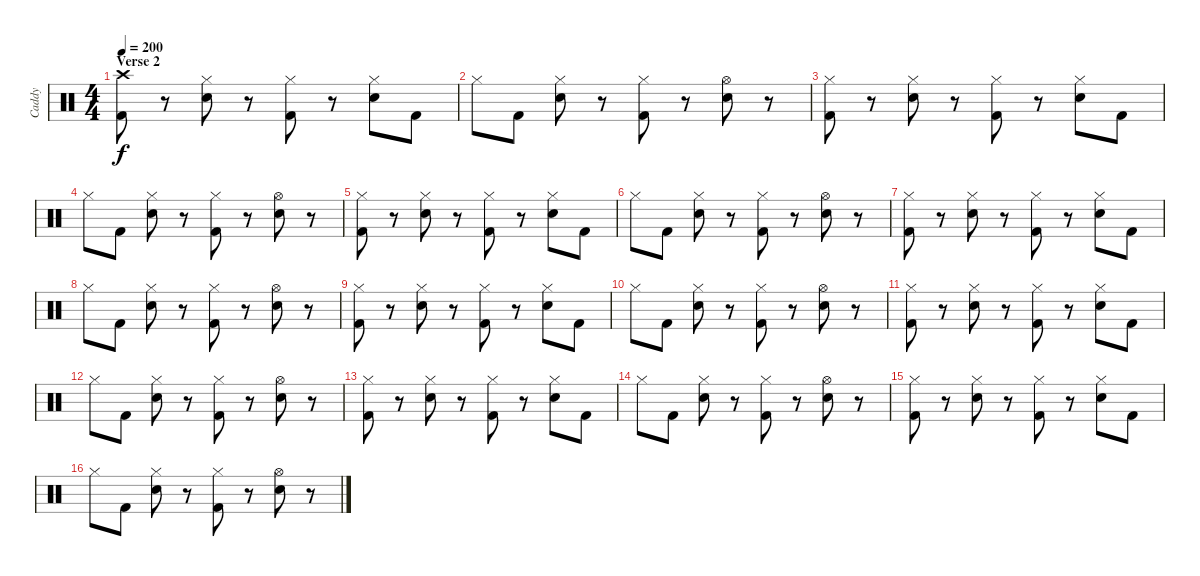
\track ("Caddy" "Caddy") {instrument percussion}
\staff {score}
\articulation defaults
\ts (4 4)
\section ("" "Verse 2")
\tempo 200
\clef neutral
\ks c
("Crash high (hit)" "Kick (hit) 2").8{dy f} r.8 ("Hi-Hat (closed)" "Electric Snare (hit)").8 r.8 ("Hi-Hat (closed)" "Kick (hit) 2").8 r.8 ("Hi-Hat (closed)" "Electric Snare (hit)").8 "Kick (hit) 2".8 |
"Hi-Hat (closed)".8 "Kick (hit) 2".8 ("Hi-Hat (closed)" "Electric Snare (hit)").8 r.8 ("Hi-Hat (closed)" "Kick (hit) 2").8 r.8 ("Hi-Hat (open)" "Electric Snare (hit)").8 r.8 |
("Hi-Hat (closed)" "Kick (hit) 2").8 r.8 ("Hi-Hat (closed)" "Electric Snare (hit)").8 r.8 ("Hi-Hat (closed)" "Kick (hit) 2").8 r.8 ("Hi-Hat (closed)" "Electric Snare (hit)").8 "Kick (hit) 2".8 |
"Hi-Hat (closed)".8 "Kick (hit) 2".8 ("Hi-Hat (closed)" "Electric Snare (hit)").8 r.8 ("Hi-Hat (closed)" "Kick (hit) 2").8 r.8 ("Hi-Hat (open)" "Electric Snare (hit)").8 r.8 |
("Hi-Hat (closed)" "Kick (hit) 2").8 r.8 ("Hi-Hat (closed)" "Electric Snare (hit)").8 r.8 ("Hi-Hat (closed)" "Kick (hit) 2").8 r.8 ("Hi-Hat (closed)" "Electric Snare (hit)").8 "Kick (hit) 2".8 |
"Hi-Hat (closed)".8 "Kick (hit) 2".8 ("Hi-Hat (closed)" "Electric Snare (hit)").8 r.8 ("Hi-Hat (closed)" "Kick (hit) 2").8 r.8 ("Hi-Hat (open)" "Electric Snare (hit)").8 r.8 |
("Hi-Hat (closed)" "Kick (hit) 2").8 r.8 ("Hi-Hat (closed)" "Electric Snare (hit)").8 r.8 ("Hi-Hat (closed)" "Kick (hit) 2").8 r.8 ("Hi-Hat (closed)" "Electric Snare (hit)").8 "Kick (hit) 2".8 |
"Hi-Hat (closed)".8 "Kick (hit) 2".8 ("Hi-Hat (closed)" "Electric Snare (hit)").8 r.8 ("Hi-Hat (closed)" "Kick (hit) 2").8 r.8 ("Hi-Hat (open)" "Electric Snare (hit)").8 r.8 |
("Hi-Hat (closed)" "Kick (hit) 2").8 r.8 ("Hi-Hat (closed)" "Electric Snare (hit)").8 r.8 ("Hi-Hat (closed)" "Kick (hit) 2").8 r.8 ("Hi-Hat (closed)" "Electric Snare (hit)").8 "Kick (hit) 2".8 |
"Hi-Hat (closed)".8 "Kick (hit) 2".8 ("Hi-Hat (closed)" "Electric Snare (hit)").8 r.8 ("Hi-Hat (closed)" "Kick (hit) 2").8 r.8 ("Hi-Hat (open)" "Electric Snare (hit)").8 r.8 |
("Hi-Hat (closed)" "Kick (hit) 2").8 r.8 ("Hi-Hat (closed)" "Electric Snare (hit)").8 r.8 ("Hi-Hat (closed)" "Kick (hit) 2").8 r.8 ("Hi-Hat (closed)" "Electric Snare (hit)").8 "Kick (hit) 2".8 |
"Hi-Hat (closed)".8 "Kick (hit) 2".8 ("Hi-Hat (closed)" "Electric Snare (hit)").8 r.8 ("Hi-Hat (closed)" "Kick (hit) 2").8 r.8 ("Hi-Hat (open)" "Electric Snare (hit)").8 r.8 |
("Hi-Hat (closed)" "Kick (hit) 2").8 r.8 ("Hi-Hat (closed)" "Electric Snare (hit)").8 r.8 ("Hi-Hat (closed)" "Kick (hit) 2").8 r.8 ("Hi-Hat (closed)" "Electric Snare (hit)").8 "Kick (hit) 2".8 |
"Hi-Hat (closed)".8 "Kick (hit) 2".8 ("Hi-Hat (closed)" "Electric Snare (hit)").8 r.8 ("Hi-Hat (closed)" "Kick (hit) 2").8 r.8 ("Hi-Hat (open)" "Electric Snare (hit)").8 r.8 |
("Hi-Hat (closed)" "Kick (hit) 2").8 r.8 ("Hi-Hat (closed)" "Electric Snare (hit)").8 r.8 ("Hi-Hat (closed)" "Kick (hit) 2").8 r.8 ("Hi-Hat (closed)" "Electric Snare (hit)").8 "Kick (hit) 2".8 |
"Hi-Hat (closed)".8 "Kick (hit) 2".8 ("Hi-Hat (closed)" "Electric Snare (hit)").8 r.8 ("Hi-Hat (closed)" "Kick (hit) 2").8 r.8 ("Hi-Hat (open)" "Electric Snare (hit)").8 r.8
